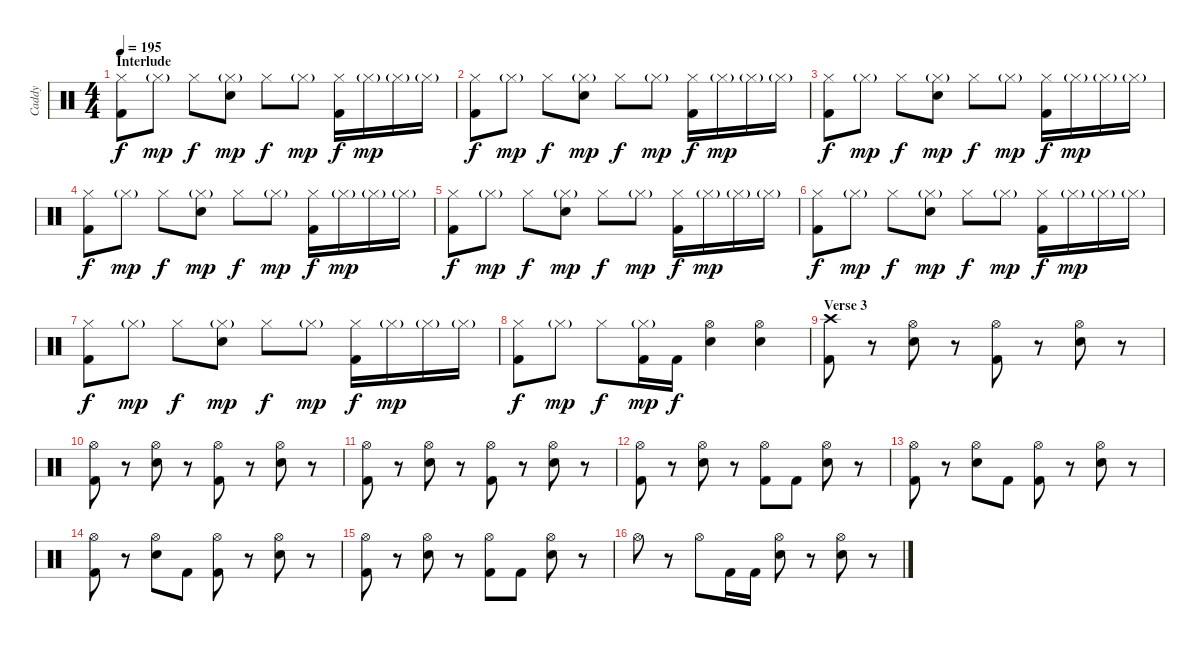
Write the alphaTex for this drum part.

\track ("Caddy" "Caddy") {instrument percussion}
\staff {score}
\articulation defaults
\ts (4 4)
\section ("" "Interlude")
\tempo 195
\clef neutral
\ks c
("Hi-Hat (closed)" "Kick (hit) 2").8{dy f} "Hi-Hat (closed)"{g}.8{dy mp} "Hi-Hat (closed)".8{dy f} ("Hi-Hat (closed)"{g} "Electric Snare (hit)").8{dy mp} "Hi-Hat (closed)".8{dy f} "Hi-Hat (closed)"{g}.8{dy mp} ("Hi-Hat (closed)" "Kick (hit) 2").16{dy f} "Hi-Hat (closed)"{g}.16{dy mp} "Hi-Hat (closed)"{g}.16 "Hi-Hat (closed)"{g}.16 |
("Hi-Hat (closed)" "Kick (hit) 2").8{dy f} "Hi-Hat (closed)"{g}.8{dy mp} "Hi-Hat (closed)".8{dy f} ("Hi-Hat (closed)"{g} "Electric Snare (hit)").8{dy mp} "Hi-Hat (closed)".8{dy f} "Hi-Hat (closed)"{g}.8{dy mp} ("Hi-Hat (closed)" "Kick (hit) 2").16{dy f} "Hi-Hat (closed)"{g}.16{dy mp} "Hi-Hat (closed)"{g}.16 "Hi-Hat (closed)"{g}.16 |
("Hi-Hat (closed)" "Kick (hit) 2").8{dy f} "Hi-Hat (closed)"{g}.8{dy mp} "Hi-Hat (closed)".8{dy f} ("Hi-Hat (closed)"{g} "Electric Snare (hit)").8{dy mp} "Hi-Hat (closed)".8{dy f} "Hi-Hat (closed)"{g}.8{dy mp} ("Hi-Hat (closed)" "Kick (hit) 2").16{dy f} "Hi-Hat (closed)"{g}.16{dy mp} "Hi-Hat (closed)"{g}.16 "Hi-Hat (closed)"{g}.16 |
("Hi-Hat (closed)" "Kick (hit) 2").8{dy f} "Hi-Hat (closed)"{g}.8{dy mp} "Hi-Hat (closed)".8{dy f} ("Hi-Hat (closed)"{g} "Electric Snare (hit)").8{dy mp} "Hi-Hat (closed)".8{dy f} "Hi-Hat (closed)"{g}.8{dy mp} ("Hi-Hat (closed)" "Kick (hit) 2").16{dy f} "Hi-Hat (closed)"{g}.16{dy mp} "Hi-Hat (closed)"{g}.16 "Hi-Hat (closed)"{g}.16 |
("Hi-Hat (closed)" "Kick (hit) 2").8{dy f} "Hi-Hat (closed)"{g}.8{dy mp} "Hi-Hat (closed)".8{dy f} ("Hi-Hat (closed)"{g} "Electric Snare (hit)").8{dy mp} "Hi-Hat (closed)".8{dy f} "Hi-Hat (closed)"{g}.8{dy mp} ("Hi-Hat (closed)" "Kick (hit) 2").16{dy f} "Hi-Hat (closed)"{g}.16{dy mp} "Hi-Hat (closed)"{g}.16 "Hi-Hat (closed)"{g}.16 |
("Hi-Hat (closed)" "Kick (hit) 2").8{dy f} "Hi-Hat (closed)"{g}.8{dy mp} "Hi-Hat (closed)".8{dy f} ("Hi-Hat (closed)"{g} "Electric Snare (hit)").8{dy mp} "Hi-Hat (closed)".8{dy f} "Hi-Hat (closed)"{g}.8{dy mp} ("Hi-Hat (closed)" "Kick (hit) 2").16{dy f} "Hi-Hat (closed)"{g}.16{dy mp} "Hi-Hat (closed)"{g}.16 "Hi-Hat (closed)"{g}.16 |
("Hi-Hat (closed)" "Kick (hit) 2").8{dy f} "Hi-Hat (closed)"{g}.8{dy mp} "Hi-Hat (closed)".8{dy f} ("Hi-Hat (closed)"{g} "Electric Snare (hit)").8{dy mp} "Hi-Hat (closed)".8{dy f} "Hi-Hat (closed)"{g}.8{dy mp} ("Hi-Hat (closed)" "Kick (hit) 2").16{dy f} "Hi-Hat (closed)"{g}.16{dy mp} "Hi-Hat (closed)"{g}.16 "Hi-Hat (closed)"{g}.16 |
("Hi-Hat (closed)" "Kick (hit) 2").8{dy f} "Hi-Hat (closed)"{g}.8{dy mp} "Hi-Hat (closed)".8{dy f} ("Hi-Hat (closed)"{g} "Kick (hit) 2").16{dy mp} "Kick (hit) 2".16{dy f} ("Hi-Hat (open)" "Electric Snare (hit)").4 ("Hi-Hat (open)" "Electric Snare (hit)").4 |
\section ("" "Verse 3")
("Crash high (hit)" "Kick (hit) 2").8 r.8 ("Hi-Hat (open)" "Electric Snare (hit)").8 r.8 ("Hi-Hat (open)" "Kick (hit) 2").8 r.8 ("Hi-Hat (open)" "Electric Snare (hit)").8 r.8 |
("Hi-Hat (open)" "Kick (hit) 2").8 r.8 ("Hi-Hat (open)" "Electric Snare (hit)").8 r.8 ("Hi-Hat (open)" "Kick (hit) 2").8 r.8 ("Hi-Hat (open)" "Electric Snare (hit)").8 r.8 |
("Hi-Hat (open)" "Kick (hit) 2").8 r.8 ("Hi-Hat (open)" "Electric Snare (hit)").8 r.8 ("Hi-Hat (open)" "Kick (hit) 2").8 r.8 ("Hi-Hat (open)" "Electric Snare (hit)").8 r.8 |
("Hi-Hat (open)" "Kick (hit) 2").8 r.8 ("Hi-Hat (open)" "Electric Snare (hit)").8 r.8 ("Hi-Hat (open)" "Kick (hit) 2").8 "Kick (hit) 2".8 ("Hi-Hat (open)" "Electric Snare (hit)").8 r.8 |
("Hi-Hat (open)" "Kick (hit) 2").8 r.8 ("Hi-Hat (open)" "Electric Snare (hit)").8 "Kick (hit) 2".8 ("Hi-Hat (open)" "Kick (hit) 2").8 r.8 ("Hi-Hat (open)" "Electric Snare (hit)").8 r.8 |
("Hi-Hat (open)" "Kick (hit) 2").8 r.8 ("Hi-Hat (open)" "Electric Snare (hit)").8 "Kick (hit) 2".8 ("Hi-Hat (open)" "Kick (hit) 2").8 r.8 ("Hi-Hat (open)" "Electric Snare (hit)").8 r.8 |
("Hi-Hat (open)" "Kick (hit) 2").8 r.8 ("Hi-Hat (open)" "Electric Snare (hit)").8 r.8 ("Hi-Hat (open)" "Kick (hit) 2").8 "Kick (hit) 2".8 ("Hi-Hat (open)" "Electric Snare (hit)").8 r.8 |
"Hi-Hat (open)".8 r.8 "Hi-Hat (open)".8 "Kick (hit) 2".16 "Kick (hit) 2".16 ("Hi-Hat (open)" "Electric Snare (hit)").8 r.8 ("Hi-Hat (open)" "Electric Snare (hit)").8 r.8
